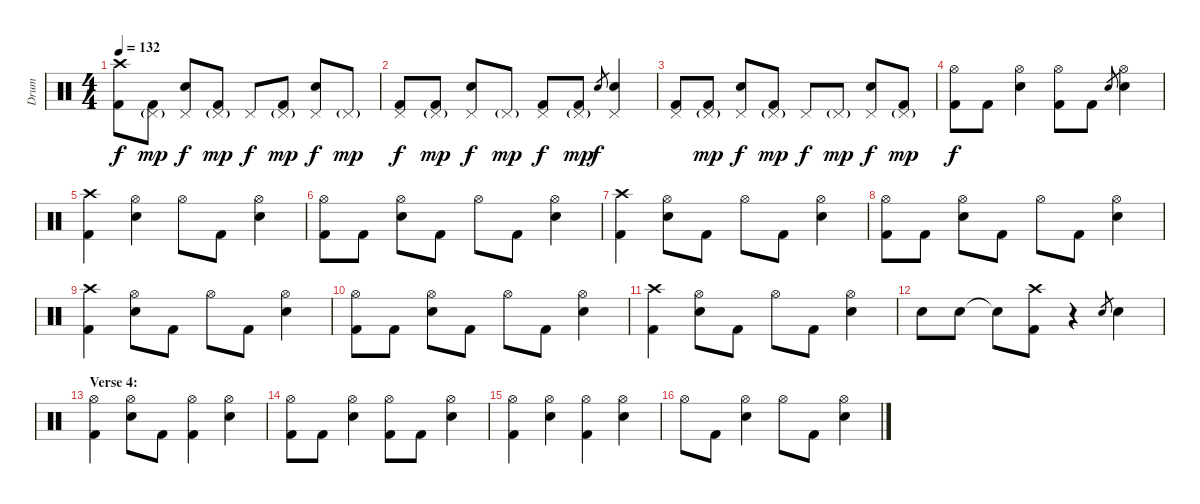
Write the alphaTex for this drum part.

\track ("Drum" "Drum") {instrument percussion}
\staff {score}
\articulation defaults
\ts (4 4)
\tempo 132
\clef neutral
\ks c
("Crash high (hit)" "Kick (hit) 2").8{dy f} ("Pedal Hi-Hat (hit)"{g} "Kick (hit) 2").8{dy mp} ("Pedal Hi-Hat (hit)" "Snare (hit) 2").8{dy f} ("Pedal Hi-Hat (hit)"{g} "Kick (hit) 2").8{dy mp} "Pedal Hi-Hat (hit)".8{dy f} ("Pedal Hi-Hat (hit)"{g} "Kick (hit) 2").8{dy mp} ("Pedal Hi-Hat (hit)" "Snare (hit) 2").8{dy f} "Pedal Hi-Hat (hit)"{g}.8{dy mp} |
("Pedal Hi-Hat (hit)" "Kick (hit) 2").8{dy f} ("Pedal Hi-Hat (hit)"{g} "Kick (hit) 2").8{dy mp} ("Pedal Hi-Hat (hit)" "Snare (hit) 2").8{dy f} "Pedal Hi-Hat (hit)"{g}.8{dy mp} ("Pedal Hi-Hat (hit)" "Kick (hit) 2").8{dy f} ("Pedal Hi-Hat (hit)"{g} "Kick (hit) 2").8{dy mp} "Snare (hit) 2".8{gr dy f} ("Pedal Hi-Hat (hit)" "Snare (hit) 2").4 |
("Pedal Hi-Hat (hit)" "Kick (hit) 2").8 ("Pedal Hi-Hat (hit)"{g} "Kick (hit) 2").8{dy mp} ("Pedal Hi-Hat (hit)" "Snare (hit) 2").8{dy f} ("Pedal Hi-Hat (hit)"{g} "Kick (hit) 2").8{dy mp} "Pedal Hi-Hat (hit)".8{dy f} "Pedal Hi-Hat (hit)"{g}.8{dy mp} ("Pedal Hi-Hat (hit)" "Snare (hit) 2").8{dy f} ("Pedal Hi-Hat (hit)"{g} "Kick (hit) 2").8{dy mp} |
("Hi-Hat (open)" "Kick (hit) 2").8{dy f} "Kick (hit) 2".8 ("Hi-Hat (open)" "Snare (hit) 2").4 ("Hi-Hat (open)" "Kick (hit) 2").8 "Kick (hit) 2".8 "Snare (hit) 2".8{gr} ("Hi-Hat (open)" "Snare (hit) 2").4 |
("Crash high (hit)" "Kick (hit) 2").4 ("Hi-Hat (open)" "Snare (hit) 2").4 "Hi-Hat (open)".8 "Kick (hit) 2".8 ("Hi-Hat (open)" "Snare (hit) 2").4 |
("Hi-Hat (open)" "Kick (hit) 2").8 "Kick (hit) 2".8 ("Hi-Hat (open)" "Snare (hit) 2").8 "Kick (hit) 2".8 "Hi-Hat (open)".8 "Kick (hit) 2".8 ("Hi-Hat (open)" "Snare (hit) 2").4 |
("Crash high (hit)" "Kick (hit) 2").4 ("Hi-Hat (open)" "Snare (hit) 2").8 "Kick (hit) 2".8 "Hi-Hat (open)".8 "Kick (hit) 2".8 ("Hi-Hat (open)" "Snare (hit) 2").4 |
("Hi-Hat (open)" "Kick (hit) 2").8 "Kick (hit) 2".8 ("Hi-Hat (open)" "Snare (hit) 2").8 "Kick (hit) 2".8 "Hi-Hat (open)".8 "Kick (hit) 2".8 ("Hi-Hat (open)" "Snare (hit) 2").4 |
("Crash high (hit)" "Kick (hit) 2").4 ("Hi-Hat (open)" "Snare (hit) 2").8 "Kick (hit) 2".8 "Hi-Hat (open)".8 "Kick (hit) 2".8 ("Hi-Hat (open)" "Snare (hit) 2").4 |
("Hi-Hat (open)" "Kick (hit) 2").8 "Kick (hit) 2".8 ("Hi-Hat (open)" "Snare (hit) 2").8 "Kick (hit) 2".8 "Hi-Hat (open)".8 "Kick (hit) 2".8 ("Hi-Hat (open)" "Snare (hit) 2").4 |
("Crash high (hit)" "Kick (hit) 2").4 ("Hi-Hat (open)" "Snare (hit) 2").8 "Kick (hit) 2".8 "Hi-Hat (open)".8 "Kick (hit) 2".8 ("Hi-Hat (open)" "Snare (hit) 2").4 |
"Snare (hit) 2".8 "Snare (hit) 2".8 "Snare (hit)"{t}.8 ("Crash high (hit)" "Kick (hit) 2").8 r.4 "Snare (hit) 2".8{gr} "Snare (hit) 2".4 |
\section ("" "Verse 4:")
("Hi-Hat (open)" "Kick (hit) 2").4 ("Hi-Hat (open)" "Snare (hit) 2").8 "Kick (hit) 2".8 ("Hi-Hat (open)" "Kick (hit) 2").4 ("Hi-Hat (open)" "Snare (hit) 2").4 |
("Hi-Hat (open)" "Kick (hit) 2").8 "Kick (hit) 2".8 ("Hi-Hat (open)" "Snare (hit) 2").4 ("Hi-Hat (open)" "Kick (hit) 2").8 "Kick (hit) 2".8 ("Hi-Hat (open)" "Snare (hit) 2").4 |
("Hi-Hat (open)" "Kick (hit) 2").4 ("Hi-Hat (open)" "Snare (hit) 2").4 ("Hi-Hat (open)" "Kick (hit) 2").4 ("Hi-Hat (open)" "Snare (hit) 2").4 |
"Hi-Hat (open)".8 "Kick (hit) 2".8 ("Hi-Hat (open)" "Snare (hit) 2").4 "Hi-Hat (open)".8 "Kick (hit) 2".8 ("Hi-Hat (open)" "Snare (hit) 2").4
